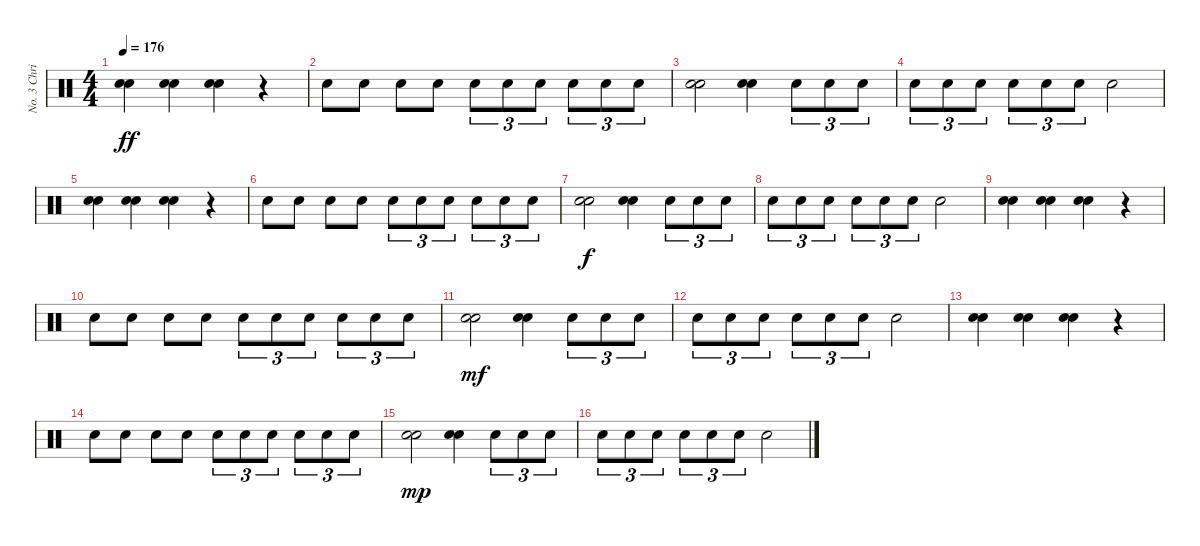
\track ("No. 3 Chris" "No. 3 Chri") {instrument percussion}
\staff {score}
\articulation defaults
\ts (4 4)
\tempo 176
\clef neutral
\ks c
("Electric Snare (hit)" "Electric Snare (hit)").4{dy ff} ("Electric Snare (hit)" "Electric Snare (hit)").4 ("Electric Snare (hit)" "Electric Snare (hit)").4 r.4 |
"Electric Snare (hit)".8 "Electric Snare (hit)".8 "Electric Snare (hit)".8 "Electric Snare (hit)".8 "Electric Snare (hit)".8{tu (3 2)} "Electric Snare (hit)".8{tu (3 2)} "Electric Snare (hit)".8{tu (3 2)} "Electric Snare (hit)".8{tu (3 2)} "Electric Snare (hit)".8{tu (3 2)} "Electric Snare (hit)".8{tu (3 2)} |
("Electric Snare (hit)" "Electric Snare (hit)").2 ("Electric Snare (hit)" "Electric Snare (hit)").4 "Electric Snare (hit)".8{tu (3 2)} "Electric Snare (hit)".8{tu (3 2)} "Electric Snare (hit)".8{tu (3 2)} |
"Electric Snare (hit)".8{tu (3 2)} "Electric Snare (hit)".8{tu (3 2)} "Electric Snare (hit)".8{tu (3 2)} "Electric Snare (hit)".8{tu (3 2)} "Electric Snare (hit)".8{tu (3 2)} "Electric Snare (hit)".8{tu (3 2)} "Electric Snare (hit)".2 |
("Electric Snare (hit)" "Electric Snare (hit)").4 ("Electric Snare (hit)" "Electric Snare (hit)").4 ("Electric Snare (hit)" "Electric Snare (hit)").4 r.4 |
"Electric Snare (hit)".8 "Electric Snare (hit)".8 "Electric Snare (hit)".8 "Electric Snare (hit)".8 "Electric Snare (hit)".8{tu (3 2)} "Electric Snare (hit)".8{tu (3 2)} "Electric Snare (hit)".8{tu (3 2)} "Electric Snare (hit)".8{tu (3 2)} "Electric Snare (hit)".8{tu (3 2)} "Electric Snare (hit)".8{tu (3 2)} |
("Electric Snare (hit)" "Electric Snare (hit)").2{dy f} ("Electric Snare (hit)" "Electric Snare (hit)").4 "Electric Snare (hit)".8{tu (3 2)} "Electric Snare (hit)".8{tu (3 2)} "Electric Snare (hit)".8{tu (3 2)} |
"Electric Snare (hit)".8{tu (3 2)} "Electric Snare (hit)".8{tu (3 2)} "Electric Snare (hit)".8{tu (3 2)} "Electric Snare (hit)".8{tu (3 2)} "Electric Snare (hit)".8{tu (3 2)} "Electric Snare (hit)".8{tu (3 2)} "Electric Snare (hit)".2 |
("Electric Snare (hit)" "Electric Snare (hit)").4 ("Electric Snare (hit)" "Electric Snare (hit)").4 ("Electric Snare (hit)" "Electric Snare (hit)").4 r.4 |
"Electric Snare (hit)".8 "Electric Snare (hit)".8 "Electric Snare (hit)".8 "Electric Snare (hit)".8 "Electric Snare (hit)".8{tu (3 2)} "Electric Snare (hit)".8{tu (3 2)} "Electric Snare (hit)".8{tu (3 2)} "Electric Snare (hit)".8{tu (3 2)} "Electric Snare (hit)".8{tu (3 2)} "Electric Snare (hit)".8{tu (3 2)} |
("Electric Snare (hit)" "Electric Snare (hit)").2{dy mf} ("Electric Snare (hit)" "Electric Snare (hit)").4 "Electric Snare (hit)".8{tu (3 2)} "Electric Snare (hit)".8{tu (3 2)} "Electric Snare (hit)".8{tu (3 2)} |
"Electric Snare (hit)".8{tu (3 2)} "Electric Snare (hit)".8{tu (3 2)} "Electric Snare (hit)".8{tu (3 2)} "Electric Snare (hit)".8{tu (3 2)} "Electric Snare (hit)".8{tu (3 2)} "Electric Snare (hit)".8{tu (3 2)} "Electric Snare (hit)".2 |
("Electric Snare (hit)" "Electric Snare (hit)").4 ("Electric Snare (hit)" "Electric Snare (hit)").4 ("Electric Snare (hit)" "Electric Snare (hit)").4 r.4 |
"Electric Snare (hit)".8 "Electric Snare (hit)".8 "Electric Snare (hit)".8 "Electric Snare (hit)".8 "Electric Snare (hit)".8{tu (3 2)} "Electric Snare (hit)".8{tu (3 2)} "Electric Snare (hit)".8{tu (3 2)} "Electric Snare (hit)".8{tu (3 2)} "Electric Snare (hit)".8{tu (3 2)} "Electric Snare (hit)".8{tu (3 2)} |
("Electric Snare (hit)" "Electric Snare (hit)").2{dy mp} ("Electric Snare (hit)" "Electric Snare (hit)").4 "Electric Snare (hit)".8{tu (3 2)} "Electric Snare (hit)".8{tu (3 2)} "Electric Snare (hit)".8{tu (3 2)} |
"Electric Snare (hit)".8{tu (3 2)} "Electric Snare (hit)".8{tu (3 2)} "Electric Snare (hit)".8{tu (3 2)} "Electric Snare (hit)".8{tu (3 2)} "Electric Snare (hit)".8{tu (3 2)} "Electric Snare (hit)".8{tu (3 2)} "Electric Snare (hit)".2
